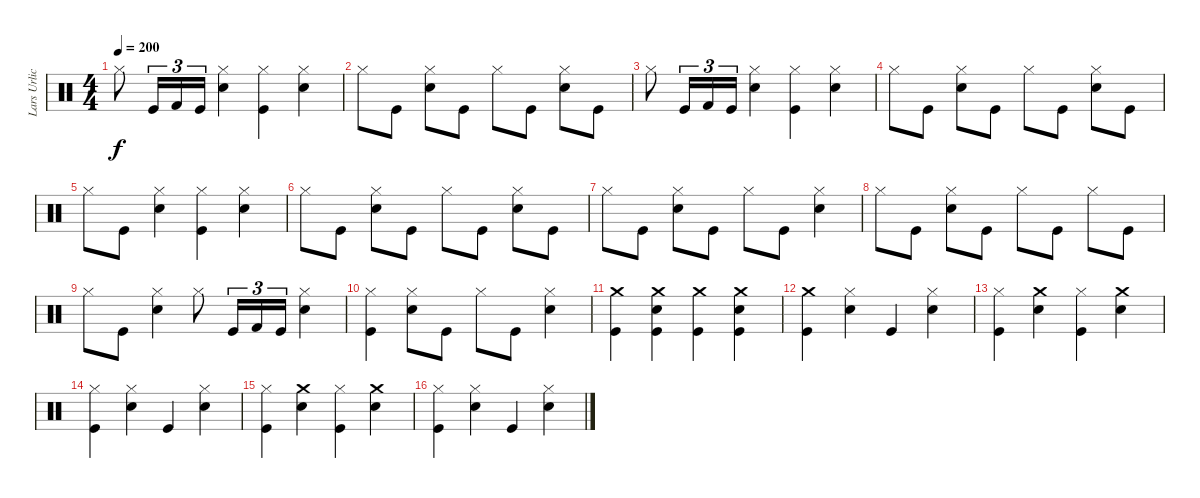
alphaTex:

\track ("Lars Urlich" "Lars Urlic") {instrument percussion}
\staff {score}
\articulation defaults
\ts (4 4)
\tempo 200
\clef neutral
\ks c "Hi-Hat (closed)".8{dy f} "Kick (hit)".16{tu (3 2)} "Kick (hit) 2".16{tu (3 2)} "Kick (hit)".16{tu (3 2)}
("Snare (hit) 2" "Hi-Hat (closed)").4 ("Kick (hit)" "Hi-Hat (closed)").4 ("Hi-Hat (closed)" "Snare (hit) 2").4 |
"Hi-Hat (closed)".8 "Kick (hit)".8 ("Snare (hit) 2" "Hi-Hat (closed)").8 "Kick (hit)".8 "Hi-Hat (closed)".8 "Kick (hit)".8 ("Snare (hit) 2" "Hi-Hat (closed)").8 "Kick (hit)".8 |
"Hi-Hat (closed)".8 "Kick (hit)".16{tu (3 2)} "Kick (hit) 2".16{tu (3 2)} "Kick (hit)".16{tu (3 2)} ("Snare (hit) 2" "Hi-Hat (closed)").4 ("Kick (hit)" "Hi-Hat (closed)").4 ("Hi-Hat (closed)" "Snare (hit) 2").4 |
"Hi-Hat (closed)".8 "Kick (hit)".8 ("Snare (hit) 2" "Hi-Hat (closed)").8 "Kick (hit)".8 "Hi-Hat (closed)".8 "Kick (hit)".8 ("Snare (hit) 2" "Hi-Hat (closed)").8 "Kick (hit)".8 |
"Hi-Hat (closed)".8 "Kick (hit)".8 ("Snare (hit) 2" "Hi-Hat (closed)").4 ("Hi-Hat (closed)" "Kick (hit)").4 ("Snare (hit) 2" "Hi-Hat (closed)").4 |
"Hi-Hat (closed)".8 "Kick (hit)".8 ("Snare (hit) 2" "Hi-Hat (closed)").8 "Kick (hit)".8 "Hi-Hat (closed)".8 "Kick (hit)".8 ("Snare (hit) 2" "Hi-Hat (closed)").8 "Kick (hit)".8 |
"Hi-Hat (closed)".8 "Kick (hit)".8 ("Snare (hit) 2" "Hi-Hat (closed)").8 "Kick (hit)".8 "Hi-Hat (closed)".8 "Kick (hit)".8 ("Snare (hit) 2" "Hi-Hat (closed)").4 |
"Hi-Hat (closed)".8 "Kick (hit)".8 ("Snare (hit) 2" "Hi-Hat (closed)").8 "Kick (hit)".8 "Hi-Hat (closed)".8 "Kick (hit)".8 "Hi-Hat (closed)".8 "Kick (hit)".8 |
"Hi-Hat (closed)".8 "Kick (hit)".8 ("Snare (hit) 2" "Hi-Hat (closed)").4 "Hi-Hat (closed)".8 "Kick (hit)".16{tu (3 2)} "Kick (hit) 2".16{tu (3 2)} "Kick (hit)".16{tu (3 2)} ("Snare (hit) 2" "Hi-Hat (closed)").4 |
("Kick (hit)" "Hi-Hat (closed)").4 ("Snare (hit) 2" "Hi-Hat (closed)").8 "Kick (hit)".8 "Hi-Hat (closed)".8 "Kick (hit)".8 ("Snare (hit) 2" "Hi-Hat (closed)").4 |
("Kick (hit)" "Crash medium (hit)").4 ("Kick (hit)" "Snare (hit) 2" "Crash medium (hit)").4 ("Kick (hit)" "Crash medium (hit)").4 ("Kick (hit)" "Snare (hit) 2" "Crash medium (hit)").4 |
("Crash medium (hit)" "Kick (hit)").4 ("Hi-Hat (closed)" "Snare (hit) 2").4 "Kick (hit)".4 ("Snare (hit) 2" "Hi-Hat (closed)").4 |
("Hi-Hat (closed)" "Kick (hit)").4 ("Crash medium (hit)" "Snare (hit) 2").4 ("Hi-Hat (closed)" "Kick (hit)").4 ("Crash medium (hit)" "Snare (hit) 2").4 |
("Hi-Hat (closed)" "Kick (hit)").4 ("Hi-Hat (closed)" "Snare (hit) 2").4 "Kick (hit)".4 ("Snare (hit) 2" "Hi-Hat (closed)").4 |
("Hi-Hat (closed)" "Kick (hit)").4 ("Crash medium (hit)" "Snare (hit) 2").4 ("Hi-Hat (closed)" "Kick (hit)").4 ("Crash medium (hit)" "Snare (hit) 2").4 |
("Hi-Hat (closed)" "Kick (hit)").4 ("Hi-Hat (closed)" "Snare (hit) 2").4 "Kick (hit)".4 ("Snare (hit) 2" "Hi-Hat (closed)").4
